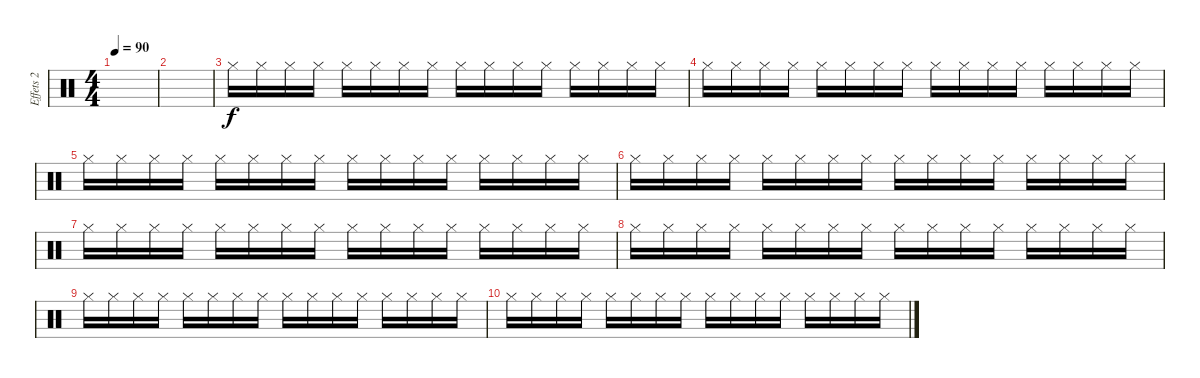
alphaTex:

\track ("Effets 2" "Effets 2") {instrument percussion}
\staff {score}
\articulation defaults
\ts (4 4)
\tempo 90
\clef neutral
\ks c
|
|
"Hi-Hat (closed)".16{balance 0} "Hi-Hat (closed)".16 "Hi-Hat (closed)".16{balance 16} "Hi-Hat (closed)".16 "Hi-Hat (closed)".16{balance 0} "Hi-Hat (closed)".16 "Hi-Hat (closed)".16{balance 16} "Hi-Hat (closed)".16 "Hi-Hat (closed)".16{balance 0} "Hi-Hat (closed)".16 "Hi-Hat (closed)".16{balance 16} "Hi-Hat (closed)".16 "Hi-Hat (closed)".16{balance 0} "Hi-Hat (closed)".16 "Hi-Hat (closed)".16{balance 16} "Hi-Hat (closed)".16 |
"Hi-Hat (closed)".16{balance 0} "Hi-Hat (closed)".16 "Hi-Hat (closed)".16{balance 16} "Hi-Hat (closed)".16 "Hi-Hat (closed)".16{balance 0} "Hi-Hat (closed)".16 "Hi-Hat (closed)".16{balance 16} "Hi-Hat (closed)".16 "Hi-Hat (closed)".16{balance 0} "Hi-Hat (closed)".16 "Hi-Hat (closed)".16{balance 16} "Hi-Hat (closed)".16 "Hi-Hat (closed)".16{balance 0} "Hi-Hat (closed)".16 "Hi-Hat (closed)".16{balance 16} "Hi-Hat (closed)".16 |
"Hi-Hat (closed)".16{balance 0} "Hi-Hat (closed)".16 "Hi-Hat (closed)".16{balance 16} "Hi-Hat (closed)".16 "Hi-Hat (closed)".16{balance 0} "Hi-Hat (closed)".16 "Hi-Hat (closed)".16{balance 16} "Hi-Hat (closed)".16 "Hi-Hat (closed)".16{balance 0} "Hi-Hat (closed)".16 "Hi-Hat (closed)".16{balance 16} "Hi-Hat (closed)".16 "Hi-Hat (closed)".16{balance 0} "Hi-Hat (closed)".16 "Hi-Hat (closed)".16{balance 16} "Hi-Hat (closed)".16 |
"Hi-Hat (closed)".16{balance 0} "Hi-Hat (closed)".16 "Hi-Hat (closed)".16{balance 16} "Hi-Hat (closed)".16 "Hi-Hat (closed)".16{balance 0} "Hi-Hat (closed)".16 "Hi-Hat (closed)".16{balance 16} "Hi-Hat (closed)".16 "Hi-Hat (closed)".16{balance 0} "Hi-Hat (closed)".16 "Hi-Hat (closed)".16{balance 16} "Hi-Hat (closed)".16 "Hi-Hat (closed)".16{balance 0} "Hi-Hat (closed)".16 "Hi-Hat (closed)".16{balance 16} "Hi-Hat (closed)".16 |
"Hi-Hat (closed)".16{balance 0} "Hi-Hat (closed)".16 "Hi-Hat (closed)".16{balance 16} "Hi-Hat (closed)".16 "Hi-Hat (closed)".16{balance 0} "Hi-Hat (closed)".16 "Hi-Hat (closed)".16{balance 16} "Hi-Hat (closed)".16 "Hi-Hat (closed)".16{balance 0} "Hi-Hat (closed)".16 "Hi-Hat (closed)".16{balance 16} "Hi-Hat (closed)".16 "Hi-Hat (closed)".16{balance 0} "Hi-Hat (closed)".16 "Hi-Hat (closed)".16{balance 16} "Hi-Hat (closed)".16 |
"Hi-Hat (closed)".16{balance 0} "Hi-Hat (closed)".16 "Hi-Hat (closed)".16{balance 16} "Hi-Hat (closed)".16 "Hi-Hat (closed)".16{balance 0} "Hi-Hat (closed)".16 "Hi-Hat (closed)".16{balance 16} "Hi-Hat (closed)".16 "Hi-Hat (closed)".16{balance 0} "Hi-Hat (closed)".16 "Hi-Hat (closed)".16{balance 16} "Hi-Hat (closed)".16 "Hi-Hat (closed)".16{balance 0} "Hi-Hat (closed)".16 "Hi-Hat (closed)".16{balance 16} "Hi-Hat (closed)".16 |
"Hi-Hat (closed)".16{balance 0} "Hi-Hat (closed)".16 "Hi-Hat (closed)".16{balance 16} "Hi-Hat (closed)".16 "Hi-Hat (closed)".16{balance 0} "Hi-Hat (closed)".16 "Hi-Hat (closed)".16{balance 16} "Hi-Hat (closed)".16 "Hi-Hat (closed)".16{balance 0} "Hi-Hat (closed)".16 "Hi-Hat (closed)".16{balance 16} "Hi-Hat (closed)".16 "Hi-Hat (closed)".16{balance 0} "Hi-Hat (closed)".16 "Hi-Hat (closed)".16{balance 16} "Hi-Hat (closed)".16 |
"Hi-Hat (closed)".16{balance 0} "Hi-Hat (closed)".16 "Hi-Hat (closed)".16{balance 16} "Hi-Hat (closed)".16 "Hi-Hat (closed)".16{balance 0} "Hi-Hat (closed)".16 "Hi-Hat (closed)".16{balance 16} "Hi-Hat (closed)".16 "Hi-Hat (closed)".16{balance 0} "Hi-Hat (closed)".16 "Hi-Hat (closed)".16{balance 16} "Hi-Hat (closed)".16 "Hi-Hat (closed)".16{balance 0} "Hi-Hat (closed)".16 "Hi-Hat (closed)".16{balance 16} "Hi-Hat (closed)".16
